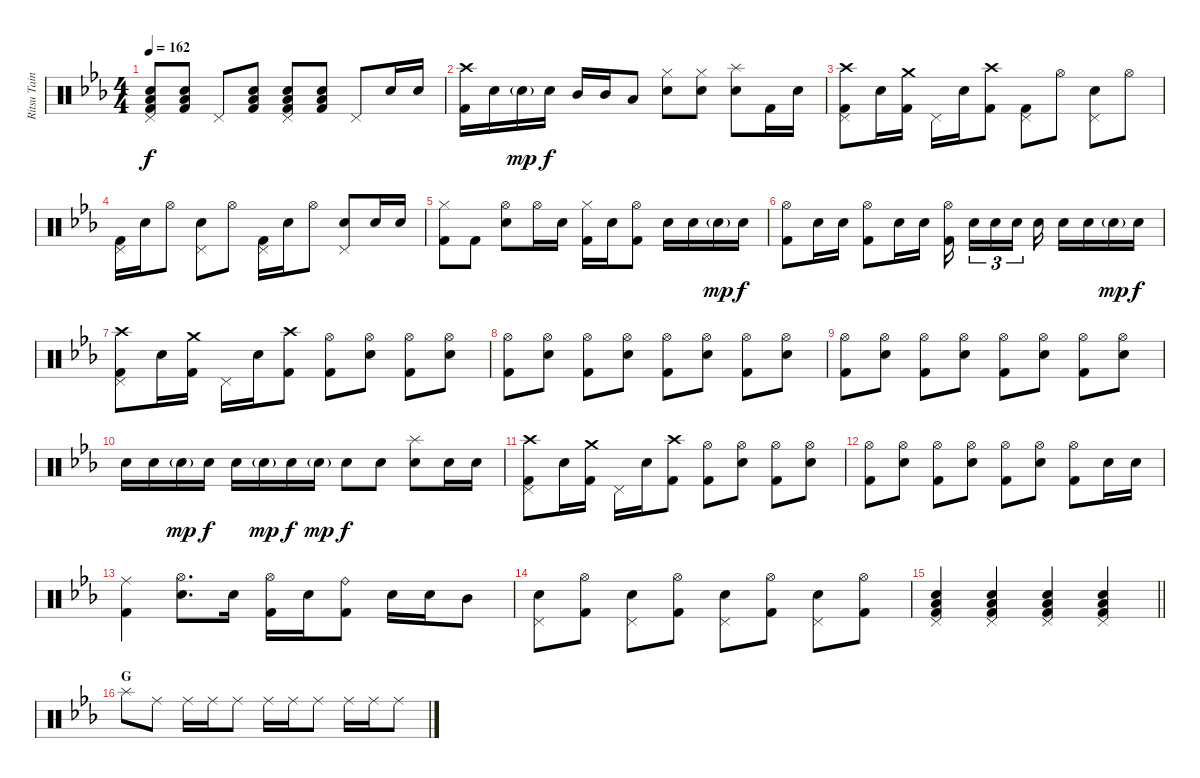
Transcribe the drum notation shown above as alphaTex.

\track ("Ritsu Tainaka" "Ritsu Tain") {instrument percussion}
\staff {score}
\articulation defaults
\ts (4 4)
\tempo 162
\clef neutral
\ks eb
("Pedal Hi-Hat (hit)" "Electric Snare (hit)" "Low Floor Tom (hit)" "Kick (hit) 2").8{dy f} ("Electric Snare (hit)" "Low Floor Tom (hit)" "Kick (hit) 2").8 "Pedal Hi-Hat (hit)".8 ("Electric Snare (hit)" "Low Floor Tom (hit)" "Kick (hit) 2").8 ("Pedal Hi-Hat (hit)" "Electric Snare (hit)" "Low Floor Tom (hit)" "Kick (hit) 2").8 ("Electric Snare (hit)" "Low Floor Tom (hit)" "Kick (hit) 2").8 "Pedal Hi-Hat (hit)".8 "Electric Snare (hit)".16 "Electric Snare (hit)".16 |
("Crash high (hit)" "Kick (hit) 2").16 "Electric Snare (hit)".16 "Electric Snare (hit)"{g}.16{dy mp} "Electric Snare (hit)".16{dy f} "Mid Tom (hit)".16 "Mid Tom (hit)".16 "Low Tom (hit)".8 ("Hi-Hat (closed)" "Electric Snare (hit)").8 ("Hi-Hat (closed)" "Electric Snare (hit)").8 ("Splash (hit)" "Electric Snare (hit)").8 "Kick (hit) 2".16 "Electric Snare (hit)".16 |
("Crash high (hit)" "Pedal Hi-Hat (hit)" "Kick (hit) 2").8 "Electric Snare (hit)".16 ("Crash medium (hit)" "Kick (hit) 2").16 "Pedal Hi-Hat (hit)".16 "Electric Snare (hit)".16 ("Crash high (hit)" "Kick (hit) 2").8 ("Pedal Hi-Hat (hit)" "Kick (hit) 2").8 "Hi-Hat (open)".8 ("Pedal Hi-Hat (hit)" "Electric Snare (hit)").8 "Hi-Hat (open)".8 |
("Pedal Hi-Hat (hit)" "Kick (hit) 2").16 "Electric Snare (hit)".16 "Hi-Hat (open)".8 ("Pedal Hi-Hat (hit)" "Electric Snare (hit)").8 "Hi-Hat (open)".8 ("Pedal Hi-Hat (hit)" "Kick (hit) 2").16 "Electric Snare (hit)".16 "Hi-Hat (open)".8 ("Pedal Hi-Hat (hit)" "Electric Snare (hit)").8 "Electric Snare (hit)".16 "Electric Snare (hit)".16 |
("Hi-Hat (closed)" "Kick (hit) 2").8 "Kick (hit) 2".8 ("Hi-Hat (open)" "Electric Snare (hit)").8 "Hi-Hat (open)".16 "Electric Snare (hit)".16 ("Hi-Hat (closed)" "Kick (hit) 2").16 "Electric Snare (hit)".16 ("Hi-Hat (open)" "Kick (hit) 2").8 "Electric Snare (hit)".16 "Electric Snare (hit)".16 "Electric Snare (hit)"{g}.16{dy mp} "Electric Snare (hit)".16{dy f} |
("Hi-Hat (open)" "Kick (hit) 2").8 "Electric Snare (hit)".16 "Electric Snare (hit)".16 ("Hi-Hat (open)" "Kick (hit) 2").8 "Electric Snare (hit)".16 "Electric Snare (hit)".16 ("Hi-Hat (open)" "Kick (hit) 2").16{beam splitsecondary} "Electric Snare (hit)".16{tu (3 2)} "Electric Snare (hit)".16{tu (3 2)} "Electric Snare (hit)".16{tu (3 2) beam splitsecondary} "Electric Snare (hit)".16 "Electric Snare (hit)".16 "Electric Snare (hit)".16 "Electric Snare (hit)"{g}.16{dy mp} "Electric Snare (hit)".16{dy f} |
("Crash high (hit)" "Pedal Hi-Hat (hit)" "Kick (hit) 2").8 "Electric Snare (hit)".16 ("Crash medium (hit)" "Kick (hit) 2").16 "Pedal Hi-Hat (hit)".16 "Electric Snare (hit)".16 ("Crash high (hit)" "Kick (hit) 2").8 ("Hi-Hat (open)" "Kick (hit) 2").8 ("Hi-Hat (open)" "Electric Snare (hit)").8 ("Hi-Hat (open)" "Kick (hit) 2").8 ("Hi-Hat (open)" "Electric Snare (hit)").8 |
("Hi-Hat (open)" "Kick (hit) 2").8 ("Hi-Hat (open)" "Electric Snare (hit)").8 ("Hi-Hat (open)" "Kick (hit) 2").8 ("Hi-Hat (open)" "Electric Snare (hit)").8 ("Hi-Hat (open)" "Kick (hit) 2").8 ("Hi-Hat (open)" "Electric Snare (hit)").8 ("Hi-Hat (open)" "Kick (hit) 2").8 ("Hi-Hat (open)" "Electric Snare (hit)").8 |
("Hi-Hat (open)" "Kick (hit) 2").8 ("Hi-Hat (open)" "Electric Snare (hit)").8 ("Hi-Hat (open)" "Kick (hit) 2").8 ("Hi-Hat (open)" "Electric Snare (hit)").8 ("Hi-Hat (open)" "Kick (hit) 2").8 ("Hi-Hat (open)" "Electric Snare (hit)").8 ("Hi-Hat (open)" "Kick (hit) 2").8 ("Hi-Hat (open)" "Electric Snare (hit)").8 |
"Electric Snare (hit)".16 "Electric Snare (hit)".16 "Electric Snare (hit)"{g}.16{dy mp} "Electric Snare (hit)".16{dy f} "Electric Snare (hit)".16 "Electric Snare (hit)"{g}.16{dy mp} "Electric Snare (hit)".16{dy f} "Electric Snare (hit)"{g}.16{dy mp} "Electric Snare (hit)".8{dy f} "Electric Snare (hit)".8 ("Splash (hit)" "Electric Snare (hit)").8 "Electric Snare (hit)".16 "Electric Snare (hit)".16 |
("Crash high (hit)" "Pedal Hi-Hat (hit)" "Kick (hit) 2").8 "Electric Snare (hit)".16 ("Crash medium (hit)" "Kick (hit) 2").16 "Pedal Hi-Hat (hit)".16 "Electric Snare (hit)".16 ("Crash high (hit)" "Kick (hit) 2").8 ("Hi-Hat (open)" "Kick (hit) 2").8 ("Hi-Hat (open)" "Electric Snare (hit)").8 ("Hi-Hat (open)" "Kick (hit) 2").8 ("Hi-Hat (open)" "Electric Snare (hit)").8 |
("Hi-Hat (open)" "Kick (hit) 2").8 ("Hi-Hat (open)" "Electric Snare (hit)").8 ("Hi-Hat (open)" "Kick (hit) 2").8 ("Hi-Hat (open)" "Electric Snare (hit)").8 ("Hi-Hat (open)" "Kick (hit) 2").8 ("Hi-Hat (open)" "Electric Snare (hit)").8 ("Hi-Hat (open)" "Kick (hit) 2").8 "Electric Snare (hit)".16 "Electric Snare (hit)".16 |
("Ride (middle)" "Kick (hit) 2").4 ("Hi-Hat (open)" "Electric Snare (hit)").8{d} "Electric Snare (hit)".16 ("Hi-Hat (open)" "Kick (hit) 2").16 "Electric Snare (hit)".16 ("Ride (bell)" "Kick (hit) 2").8 "Electric Snare (hit)".16 "Electric Snare (hit)".16 "Mid Tom (hit)".8 |
("Pedal Hi-Hat (hit)" "Electric Snare (hit)").8 ("Hi-Hat (open)" "Kick (hit) 2").8 ("Pedal Hi-Hat (hit)" "Electric Snare (hit)").8 ("Hi-Hat (open)" "Kick (hit) 2").8 ("Pedal Hi-Hat (hit)" "Electric Snare (hit)").8 ("Hi-Hat (open)" "Kick (hit) 2").8 ("Pedal Hi-Hat (hit)" "Electric Snare (hit)").8 ("Hi-Hat (open)" "Kick (hit) 2").8 |
\barLineRight lightlight
("Pedal Hi-Hat (hit)" "Electric Snare (hit)" "Low Floor Tom (hit)" "Kick (hit) 2").4 ("Pedal Hi-Hat (hit)" "Electric Snare (hit)" "Low Floor Tom (hit)" "Kick (hit) 2").4 ("Pedal Hi-Hat (hit)" "Electric Snare (hit)" "Low Floor Tom (hit)" "Kick (hit) 2").4 ("Pedal Hi-Hat (hit)" "Electric Snare (hit)" "Low Floor Tom (hit)" "Kick (hit) 2").4 |
\section ("" "G")
"Splash (hit)".8 "Ride (middle)".8 "Ride (middle)".16 "Ride (middle)".16 "Ride (middle)".8 "Ride (middle)".16 "Ride (middle)".16 "Ride (middle)".8 "Ride (middle)".16 "Ride (middle)".16 "Ride (middle)".8
